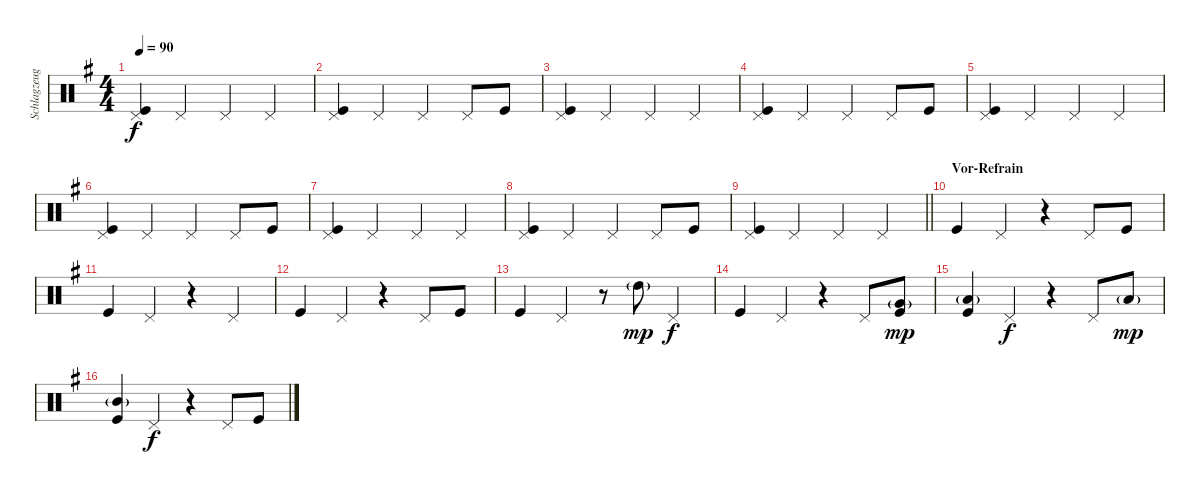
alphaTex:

\track ("Schlagzeug" "Schlagzeug") {instrument percussion}
\staff {score}
\articulation defaults
\ts (4 4)
\tempo 90
\clef neutral
\ks g
("Pedal Hi-Hat (hit)" "Kick (hit)").4{dy f} "Pedal Hi-Hat (hit)".4 "Pedal Hi-Hat (hit)".4 "Pedal Hi-Hat (hit)".4 |
("Pedal Hi-Hat (hit)" "Kick (hit)").4 "Pedal Hi-Hat (hit)".4 "Pedal Hi-Hat (hit)".4 "Pedal Hi-Hat (hit)".8 "Kick (hit)".8 |
("Pedal Hi-Hat (hit)" "Kick (hit)").4 "Pedal Hi-Hat (hit)".4 "Pedal Hi-Hat (hit)".4 "Pedal Hi-Hat (hit)".4 |
("Pedal Hi-Hat (hit)" "Kick (hit)").4 "Pedal Hi-Hat (hit)".4 "Pedal Hi-Hat (hit)".4 "Pedal Hi-Hat (hit)".8 "Kick (hit)".8 |
("Pedal Hi-Hat (hit)" "Kick (hit)").4 "Pedal Hi-Hat (hit)".4 "Pedal Hi-Hat (hit)".4 "Pedal Hi-Hat (hit)".4 |
("Pedal Hi-Hat (hit)" "Kick (hit)").4 "Pedal Hi-Hat (hit)".4 "Pedal Hi-Hat (hit)".4 "Pedal Hi-Hat (hit)".8 "Kick (hit)".8 |
("Pedal Hi-Hat (hit)" "Kick (hit)").4 "Pedal Hi-Hat (hit)".4 "Pedal Hi-Hat (hit)".4 "Pedal Hi-Hat (hit)".4 |
("Pedal Hi-Hat (hit)" "Kick (hit)").4 "Pedal Hi-Hat (hit)".4 "Pedal Hi-Hat (hit)".4 "Pedal Hi-Hat (hit)".8 "Kick (hit)".8 |
\barLineRight lightlight
("Pedal Hi-Hat (hit)" "Kick (hit)").4 "Pedal Hi-Hat (hit)".4 "Pedal Hi-Hat (hit)".4 "Pedal Hi-Hat (hit)".4 |
\section ("" "Vor-Refrain")
"Kick (hit)".4 "Pedal Hi-Hat (hit)".4 r.4 "Pedal Hi-Hat (hit)".8 "Kick (hit)".8 |
"Kick (hit)".4 "Pedal Hi-Hat (hit)".4 r.4 "Pedal Hi-Hat (hit)".4 |
"Kick (hit)".4 "Pedal Hi-Hat (hit)".4 r.4 "Pedal Hi-Hat (hit)".8 "Kick (hit)".8 |
"Kick (hit)".4 "Pedal Hi-Hat (hit)".4 r.8 "High Tom (hit)"{g}.8{dy mp} "Pedal Hi-Hat (hit)".4{dy f} |
"Kick (hit)".4 "Pedal Hi-Hat (hit)".4 r.4 "Pedal Hi-Hat (hit)".8 ("Very Low Tom (hit)"{g} "Kick (hit)").8{dy mp} |
("Low Floor Tom (hit)"{g} "Kick (hit)").4 "Pedal Hi-Hat (hit)".4{dy f} r.4 "Pedal Hi-Hat (hit)".8 "Low Tom (hit)"{g}.8{dy mp} |
("Mid Tom (hit)"{g} "Kick (hit)").4 "Pedal Hi-Hat (hit)".4{dy f} r.4 "Pedal Hi-Hat (hit)".8 "Kick (hit)".8
